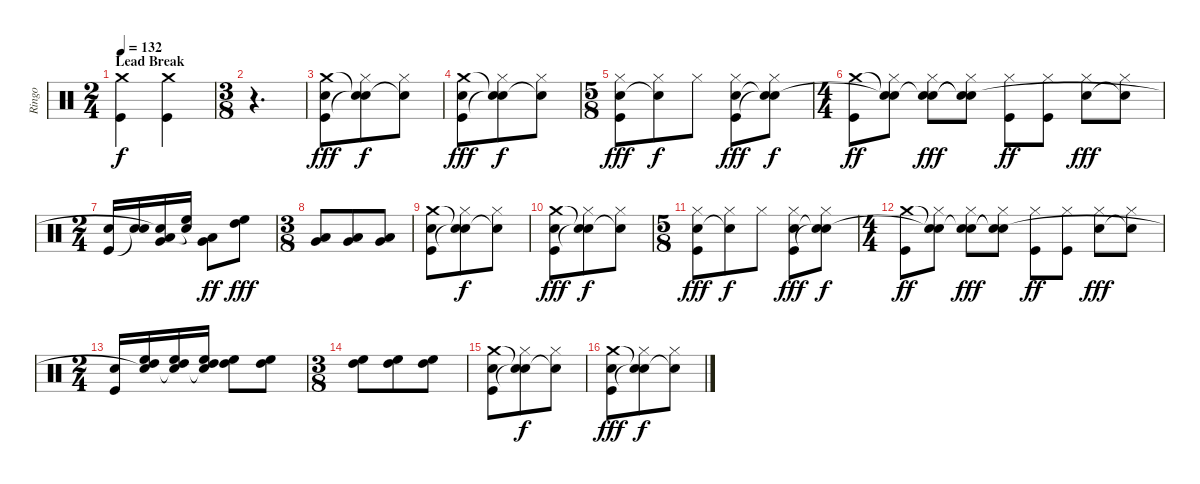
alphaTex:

\track ("Ringo" "Ringo") {instrument percussion}
\staff {score}
\articulation defaults
\ts (2 4)
\section ("" "Lead Break")
\tempo 132
\clef neutral
\ks c
("Crash medium (hit)" "Kick (hit)").4{dy f} ("Crash medium (hit)" "Kick (hit)").4 |
\ts (3 8)
r.4{d} |
("Crash medium (hit)" "Electric Snare (hit)" "Kick (hit)").8{dy fff} ("Snare (hit)"{t} "Hi-Hat (closed)" "Snare (hit)"{t}).8{dy f} ("Snare (hit)"{t} "Hi-Hat (closed)").8 |
("Crash medium (hit)" "Electric Snare (hit)" "Kick (hit)").8{dy fff} ("Snare (hit)"{t} "Hi-Hat (closed)" "Snare (hit)"{t}).8{dy f} ("Snare (hit)"{t} "Hi-Hat (closed)").8 |
\ts (5 8)
("Hi-Hat (closed)" "Electric Snare (hit)" "Kick (hit)").8{dy fff} ("Hi-Hat (closed)" "Snare (hit)"{t}).8{dy f} "Hi-Hat (closed)".8 ("Hi-Hat (closed)" "Electric Snare (hit)" "Kick (hit)").8{dy fff} ("Hi-Hat (closed)" "Snare (hit)"{t} "Snare (hit)"{t}).8{dy f} |
\ts (4 4)
("Crash medium (hit)" "Kick (hit)").8{dy ff} ("Snare (hit)"{t} "Hi-Hat (closed)" "Snare (hit)"{t}).8 ("Snare (hit)"{t} "Hi-Hat (closed)" "Electric Snare (hit)").8{dy fff} ("Snare (hit)"{t} "Hi-Hat (closed)" "Snare (hit)"{t}).8 ("Hi-Hat (closed)" "Kick (hit)").8{dy ff} ("Hi-Hat (closed)" "Kick (hit)").8 ("Hi-Hat (closed)" "Electric Snare (hit)").8{dy fff} ("Hi-Hat (closed)" "Snare (hit)"{t}).8 |
\ts (2 4)
("Electric Snare (hit)" "Kick (hit)").16 ("Electric Snare (hit)" "Snare (hit)"{t}).16 ("Very Low Tom (hit)" "Low Floor Tom (hit)" "Snare (hit)"{t}).16 ("High Floor Tom (hit)" "Snare (hit)"{t}).16 ("Low Floor Tom (hit)" "Very Low Tom (hit)").8{dy ff} ("High Floor Tom (hit)" "High Tom (hit)").8{dy fff} |
\ts (3 8)
("Very Low Tom (hit)" "Low Floor Tom (hit)").8 ("Very Low Tom (hit)" "Low Floor Tom (hit)").8 ("Very Low Tom (hit)" "Low Floor Tom (hit)").8 |
("Crash medium (hit)" "Electric Snare (hit)" "Kick (hit)").8 ("Snare (hit)"{t} "Hi-Hat (closed)" "Snare (hit)"{t}).8{dy f} ("Snare (hit)"{t} "Hi-Hat (closed)").8 |
("Crash medium (hit)" "Electric Snare (hit)" "Kick (hit)").8{dy fff} ("Snare (hit)"{t} "Hi-Hat (closed)" "Snare (hit)"{t}).8{dy f} ("Snare (hit)"{t} "Hi-Hat (closed)").8 |
\ts (5 8)
("Hi-Hat (closed)" "Electric Snare (hit)" "Kick (hit)").8{dy fff} ("Hi-Hat (closed)" "Snare (hit)"{t}).8{dy f} "Hi-Hat (closed)".8 ("Hi-Hat (closed)" "Electric Snare (hit)" "Kick (hit)").8{dy fff} ("Hi-Hat (closed)" "Snare (hit)"{t} "Snare (hit)"{t}).8{dy f} |
\ts (4 4)
("Crash medium (hit)" "Kick (hit)").8{dy ff} ("Snare (hit)"{t} "Hi-Hat (closed)" "Snare (hit)"{t}).8 ("Snare (hit)"{t} "Hi-Hat (closed)" "Electric Snare (hit)").8{dy fff} ("Snare (hit)"{t} "Hi-Hat (closed)" "Snare (hit)"{t}).8 ("Hi-Hat (closed)" "Kick (hit)").8{dy ff} ("Hi-Hat (closed)" "Kick (hit)").8 ("Hi-Hat (closed)" "Electric Snare (hit)").8{dy fff} ("Hi-Hat (closed)" "Snare (hit)"{t}).8 |
\ts (2 4)
("Electric Snare (hit)" "Kick (hit)").16 ("High Tom (hit)" "High Floor Tom (hit)" "Snare (hit)"{t}).16 ("High Tom (hit)" "High Floor Tom (hit)" "Snare (hit)"{t}).16 ("High Tom (hit)" "High Floor Tom (hit)" "Snare (hit)"{t}).16 ("High Tom (hit)" "High Floor Tom (hit)").8 ("High Tom (hit)" "High Floor Tom (hit)").8 |
\ts (3 8)
("High Tom (hit)" "High Floor Tom (hit)").8 ("High Tom (hit)" "High Floor Tom (hit)").8 ("High Tom (hit)" "High Floor Tom (hit)").8 |
("Crash medium (hit)" "Electric Snare (hit)" "Kick (hit)").8 ("Snare (hit)"{t} "Hi-Hat (closed)" "Snare (hit)"{t}).8{dy f} ("Snare (hit)"{t} "Hi-Hat (closed)").8 |
("Crash medium (hit)" "Electric Snare (hit)" "Kick (hit)").8{dy fff} ("Snare (hit)"{t} "Hi-Hat (closed)" "Snare (hit)"{t}).8{dy f} ("Snare (hit)"{t} "Hi-Hat (closed)").8
